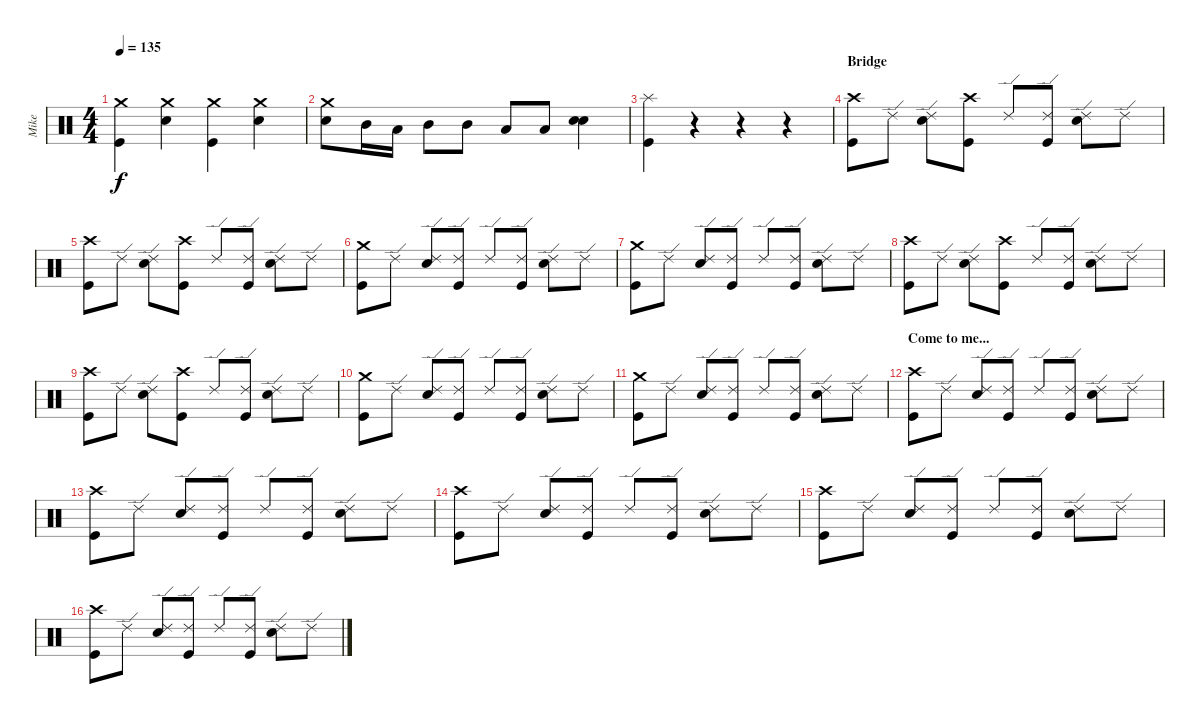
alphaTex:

\track ("Mike" "Mike") {instrument percussion}
\staff {score}
\articulation defaults
\ts (4 4)
\tempo 135
\clef neutral
\ks c
("Crash medium (hit)" "Kick (hit)").4{dy f} ("Crash medium (hit)" "Electric Snare (hit)").4 ("Crash medium (hit)" "Kick (hit)").4 ("Crash medium (hit)" "Electric Snare (hit)").4 |
("Crash medium (hit)" "Electric Snare (hit)").8 "Mid Tom (hit)".16 "Low Tom (hit)".16 "Mid Tom (hit)".8 "Mid Tom (hit)".8 "Low Tom (hit)".8 "Low Tom (hit)".8 ("Electric Snare (hit)" "Electric Snare (hit)").4{bu 240} |
("Splash (hit)" "Kick (hit)").4 r.4 r.4 r.4 |
\section ("" "Bridge")
("Crash high (hit)" "Kick (hit)").8 "Ride (edge) 2".8 ("Ride (edge) 2" "Electric Snare (hit)").8 ("Crash high (hit)" "Kick (hit)").8 "Ride (edge) 2".8 ("Ride (edge) 2" "Kick (hit)").8 ("Ride (edge) 2" "Electric Snare (hit)").8 "Ride (edge) 2".8 |
("Crash high (hit)" "Kick (hit)").8 "Ride (edge) 2".8 ("Ride (edge) 2" "Electric Snare (hit)").8 ("Crash high (hit)" "Kick (hit)").8 "Ride (edge) 2".8 ("Ride (edge) 2" "Kick (hit)").8 ("Ride (edge) 2" "Electric Snare (hit)").8 "Ride (edge) 2".8 |
("Crash medium (hit)" "Kick (hit)").8 "Ride (edge) 2".8 ("Ride (edge) 2" "Electric Snare (hit)").8 ("Ride (edge) 2" "Kick (hit)").8 "Ride (edge) 2".8 ("Ride (edge) 2" "Kick (hit)").8 ("Ride (edge) 2" "Electric Snare (hit)").8 "Ride (edge) 2".8 |
("Crash medium (hit)" "Kick (hit)").8 "Ride (edge) 2".8 ("Ride (edge) 2" "Electric Snare (hit)").8 ("Ride (edge) 2" "Kick (hit)").8 "Ride (edge) 2".8 ("Ride (edge) 2" "Kick (hit)").8 ("Ride (edge) 2" "Electric Snare (hit)").8 "Ride (edge) 2".8 |
("Crash high (hit)" "Kick (hit)").8 "Ride (edge) 2".8 ("Ride (edge) 2" "Electric Snare (hit)").8 ("Crash high (hit)" "Kick (hit)").8 "Ride (edge) 2".8 ("Ride (edge) 2" "Kick (hit)").8 ("Ride (edge) 2" "Electric Snare (hit)").8 "Ride (edge) 2".8 |
("Crash high (hit)" "Kick (hit)").8 "Ride (edge) 2".8 ("Ride (edge) 2" "Electric Snare (hit)").8 ("Crash high (hit)" "Kick (hit)").8 "Ride (edge) 2".8 ("Ride (edge) 2" "Kick (hit)").8 ("Ride (edge) 2" "Electric Snare (hit)").8 "Ride (edge) 2".8 |
("Crash medium (hit)" "Kick (hit)").8 "Ride (edge) 2".8 ("Ride (edge) 2" "Electric Snare (hit)").8 ("Ride (edge) 2" "Kick (hit)").8 "Ride (edge) 2".8 ("Ride (edge) 2" "Kick (hit)").8 ("Ride (edge) 2" "Electric Snare (hit)").8 "Ride (edge) 2".8 |
("Crash medium (hit)" "Kick (hit)").8 "Ride (edge) 2".8 ("Ride (edge) 2" "Electric Snare (hit)").8 ("Ride (edge) 2" "Kick (hit)").8 "Ride (edge) 2".8 ("Ride (edge) 2" "Kick (hit)").8 ("Ride (edge) 2" "Electric Snare (hit)").8 "Ride (edge) 2".8 |
\section ("" "Come to me...")
("Crash high (hit)" "Kick (hit)").8 "Ride (edge) 2".8 ("Ride (edge) 2" "Electric Snare (hit)").8 ("Ride (edge) 2" "Kick (hit)").8 "Ride (edge) 2".8 ("Ride (edge) 2" "Kick (hit)").8 ("Ride (edge) 2" "Electric Snare (hit)").8 "Ride (edge) 2".8 |
("Crash high (hit)" "Kick (hit)").8 "Ride (edge) 2".8 ("Ride (edge) 2" "Electric Snare (hit)").8 ("Ride (edge) 2" "Kick (hit)").8 "Ride (edge) 2".8 ("Ride (edge) 2" "Kick (hit)").8 ("Ride (edge) 2" "Electric Snare (hit)").8 "Ride (edge) 2".8 |
("Crash high (hit)" "Kick (hit)").8 "Ride (edge) 2".8 ("Ride (edge) 2" "Electric Snare (hit)").8 ("Ride (edge) 2" "Kick (hit)").8 "Ride (edge) 2".8 ("Ride (edge) 2" "Kick (hit)").8 ("Ride (edge) 2" "Electric Snare (hit)").8 "Ride (edge) 2".8 |
("Crash high (hit)" "Kick (hit)").8 "Ride (edge) 2".8 ("Ride (edge) 2" "Electric Snare (hit)").8 ("Ride (edge) 2" "Kick (hit)").8 "Ride (edge) 2".8 ("Ride (edge) 2" "Kick (hit)").8 ("Ride (edge) 2" "Electric Snare (hit)").8 "Ride (edge) 2".8 |
("Crash high (hit)" "Kick (hit)").8 "Ride (edge) 2".8 ("Ride (edge) 2" "Electric Snare (hit)").8 ("Ride (edge) 2" "Kick (hit)").8 "Ride (edge) 2".8 ("Ride (edge) 2" "Kick (hit)").8 ("Ride (edge) 2" "Electric Snare (hit)").8 "Ride (edge) 2".8
